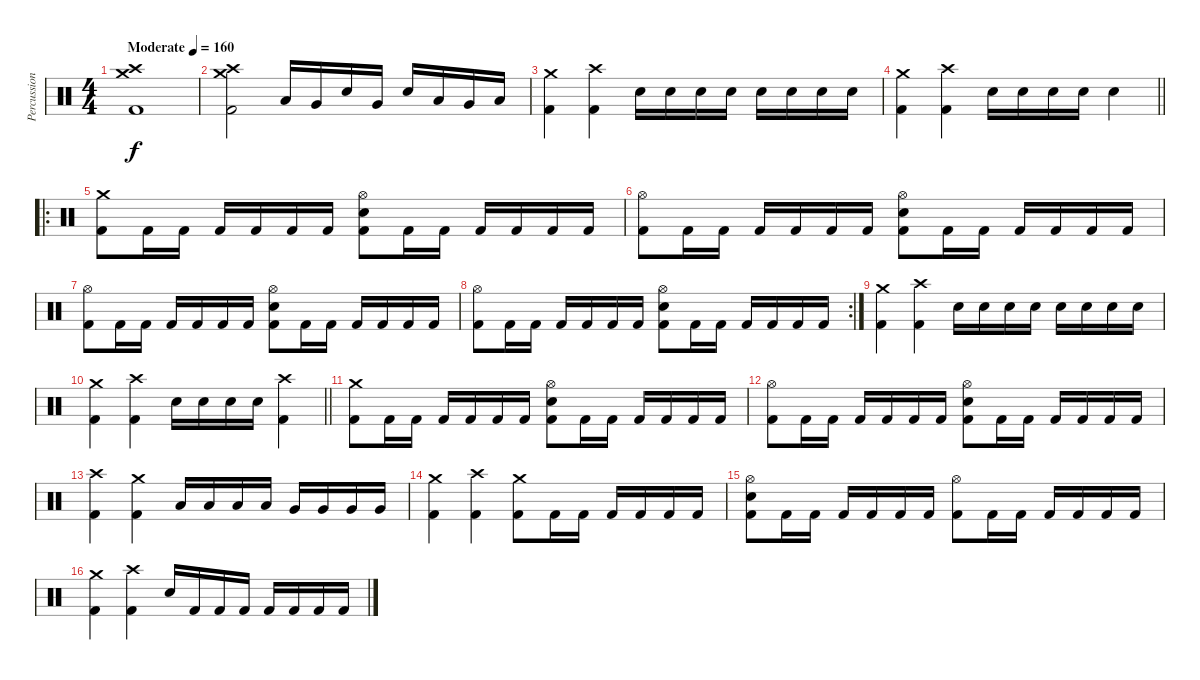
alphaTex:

\track ("Percussion" "Percussion") {instrument percussion}
\staff {score}
\articulation defaults
\ts (4 4)
\section ("" "")
\tempo (160 "Moderate")
\clef neutral
\ks c
("Crash high (hit)" "Crash medium (hit)" "Kick (hit) 2").1{dy f} |
("Crash high (hit)" "Crash medium (hit)" "Kick (hit) 2").2 "Low Tom (hit)".16 "Very Low Tom (hit)".16 "Electric Snare (hit)".16 "Very Low Tom (hit)".16 "Electric Snare (hit)".16 "Low Tom (hit)".16 "Very Low Tom (hit)".16 "Low Floor Tom (hit)".16 |
("Crash medium (hit)" "Kick (hit) 2").4 ("Crash high (hit)" "Kick (hit) 2").4 "Electric Snare (hit)".16 "Electric Snare (hit)".16 "Electric Snare (hit)".16 "Electric Snare (hit)".16 "Electric Snare (hit)".16 "Electric Snare (hit)".16 "Electric Snare (hit)".16 "Electric Snare (hit)".16 |
\barLineRight lightlight
("Crash medium (hit)" "Kick (hit) 2").4 ("Crash high (hit)" "Kick (hit) 2").4 "Electric Snare (hit)".16 "Electric Snare (hit)".16 "Electric Snare (hit)".16 "Electric Snare (hit)".16 "Electric Snare (hit)".4 |
\ro
\section ("" "")
("Crash medium (hit)" "Kick (hit) 2").8 "Kick (hit) 2".16 "Kick (hit) 2".16 "Kick (hit) 2".16 "Kick (hit) 2".16 "Kick (hit) 2".16 "Kick (hit) 2".16 ("Hi-Hat (open)" "Electric Snare (hit)" "Kick (hit) 2").8 "Kick (hit) 2".16 "Kick (hit) 2".16 "Kick (hit) 2".16 "Kick (hit) 2".16 "Kick (hit) 2".16 "Kick (hit) 2".16 |
("Hi-Hat (open)" "Kick (hit) 2").8 "Kick (hit) 2".16 "Kick (hit) 2".16 "Kick (hit) 2".16 "Kick (hit) 2".16 "Kick (hit) 2".16 "Kick (hit) 2".16 ("Hi-Hat (open)" "Electric Snare (hit)" "Kick (hit) 2").8 "Kick (hit) 2".16 "Kick (hit) 2".16 "Kick (hit) 2".16 "Kick (hit) 2".16 "Kick (hit) 2".16 "Kick (hit) 2".16 |
("Hi-Hat (open)" "Kick (hit) 2").8 "Kick (hit) 2".16 "Kick (hit) 2".16 "Kick (hit) 2".16 "Kick (hit) 2".16 "Kick (hit) 2".16 "Kick (hit) 2".16 ("Hi-Hat (open)" "Electric Snare (hit)" "Kick (hit) 2").8 "Kick (hit) 2".16 "Kick (hit) 2".16 "Kick (hit) 2".16 "Kick (hit) 2".16 "Kick (hit) 2".16 "Kick (hit) 2".16 |
\rc 2
("Hi-Hat (open)" "Kick (hit) 2").8 "Kick (hit) 2".16 "Kick (hit) 2".16 "Kick (hit) 2".16 "Kick (hit) 2".16 "Kick (hit) 2".16 "Kick (hit) 2".16 ("Hi-Hat (open)" "Electric Snare (hit)" "Kick (hit) 2").8 "Kick (hit) 2".16 "Kick (hit) 2".16 "Kick (hit) 2".16 "Kick (hit) 2".16 "Kick (hit) 2".16 "Kick (hit) 2".16 |
("Crash medium (hit)" "Kick (hit) 2").4 ("Crash high (hit)" "Kick (hit) 2").4 "Electric Snare (hit)".16 "Electric Snare (hit)".16 "Electric Snare (hit)".16 "Electric Snare (hit)".16 "Electric Snare (hit)".16 "Electric Snare (hit)".16 "Electric Snare (hit)".16 "Electric Snare (hit)".16 |
\barLineRight lightlight
("Crash medium (hit)" "Kick (hit) 2").4 ("Crash high (hit)" "Kick (hit) 2").4 "Electric Snare (hit)".16 "Electric Snare (hit)".16 "Electric Snare (hit)".16 "Electric Snare (hit)".16 ("Crash high (hit)" "Kick (hit) 2").4 |
("Crash medium (hit)" "Kick (hit) 2").8 "Kick (hit) 2".16 "Kick (hit) 2".16 "Kick (hit) 2".16 "Kick (hit) 2".16 "Kick (hit) 2".16 "Kick (hit) 2".16 ("Hi-Hat (open)" "Electric Snare (hit)" "Kick (hit) 2").8 "Kick (hit) 2".16 "Kick (hit) 2".16 "Kick (hit) 2".16 "Kick (hit) 2".16 "Kick (hit) 2".16 "Kick (hit) 2".16 |
("Hi-Hat (open)" "Kick (hit) 2").8 "Kick (hit) 2".16 "Kick (hit) 2".16 "Kick (hit) 2".16 "Kick (hit) 2".16 "Kick (hit) 2".16 "Kick (hit) 2".16 ("Hi-Hat (open)" "Electric Snare (hit)" "Kick (hit) 2").8 "Kick (hit) 2".16 "Kick (hit) 2".16 "Kick (hit) 2".16 "Kick (hit) 2".16 "Kick (hit) 2".16 "Kick (hit) 2".16 |
("Crash high (hit)" "Kick (hit) 2").4 ("Crash medium (hit)" "Kick (hit) 2").4 "Low Tom (hit)".16 "Low Tom (hit)".16 "Low Tom (hit)".16 "Low Tom (hit)".16 "Very Low Tom (hit)".16 "Very Low Tom (hit)".16 "Very Low Tom (hit)".16 "Very Low Tom (hit)".16 |
("Crash medium (hit)" "Kick (hit) 2").4 ("Crash high (hit)" "Kick (hit) 2").4 ("Crash medium (hit)" "Kick (hit) 2").8 "Kick (hit) 2".16 "Kick (hit) 2".16 "Kick (hit) 2".16 "Kick (hit) 2".16 "Kick (hit) 2".16 "Kick (hit) 2".16 |
("Hi-Hat (open)" "Electric Snare (hit)" "Kick (hit) 2").8 "Kick (hit) 2".16 "Kick (hit) 2".16 "Kick (hit) 2".16 "Kick (hit) 2".16 "Kick (hit) 2".16 "Kick (hit) 2".16 ("Hi-Hat (open)" "Kick (hit) 2").8 "Kick (hit) 2".16 "Kick (hit) 2".16 "Kick (hit) 2".16 "Kick (hit) 2".16 "Kick (hit) 2".16 "Kick (hit) 2".16 |
("Crash medium (hit)" "Kick (hit) 2").4 ("Crash high (hit)" "Kick (hit) 2").4 "Electric Snare (hit)".16 "Kick (hit) 2".16 "Kick (hit) 2".16 "Kick (hit) 2".16 "Kick (hit) 2".16 "Kick (hit) 2".16 "Kick (hit) 2".16 "Kick (hit) 2".16
